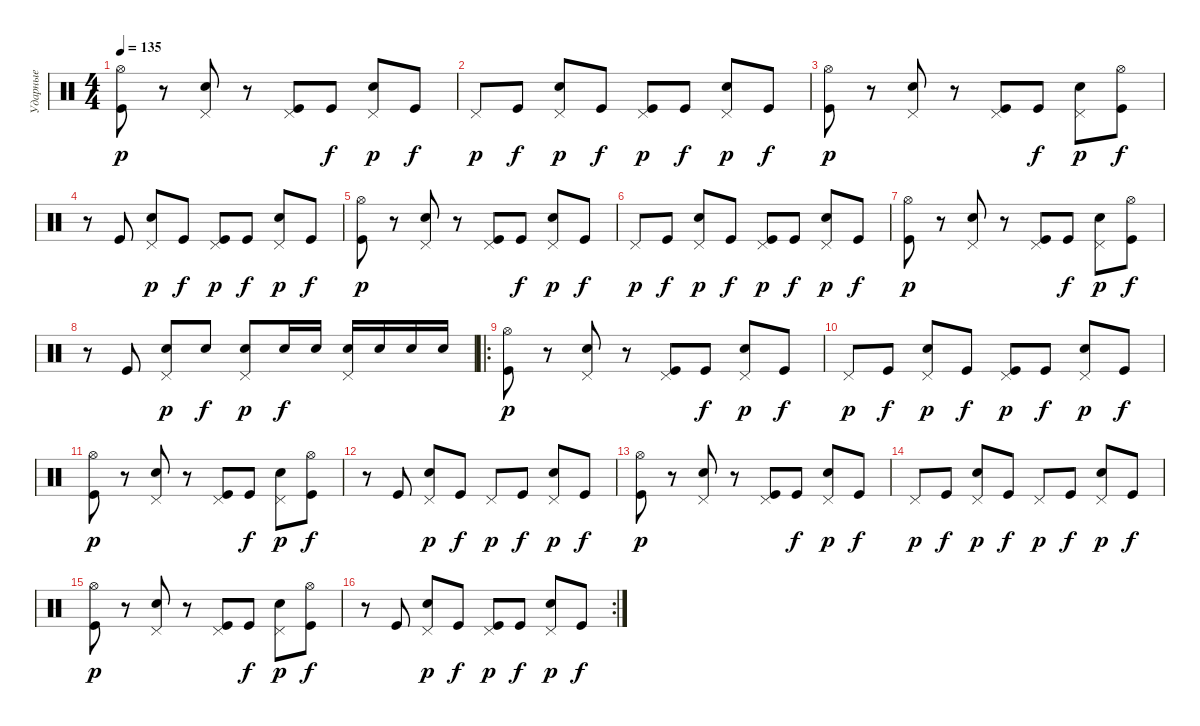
\track ("Ударные" "Ударные") {instrument percussion}
\staff {score}
\articulation defaults
\ts (4 4)
\tempo 135
\clef neutral
\ks c
("Kick (hit)" "Hi-Hat (open)").8{dy p} r.8 ("Snare (hit) 2" "Pedal Hi-Hat (hit)").8 r.8 ("Kick (hit)" "Pedal Hi-Hat (hit)").8 "Kick (hit)".8{dy f} ("Snare (hit) 2" "Pedal Hi-Hat (hit)").8{dy p} "Kick (hit)".8{dy f} |
"Pedal Hi-Hat (hit)".8{dy p} "Kick (hit)".8{dy f} ("Snare (hit) 2" "Pedal Hi-Hat (hit)").8{dy p} "Kick (hit)".8{dy f} ("Kick (hit)" "Pedal Hi-Hat (hit)").8{dy p} "Kick (hit)".8{dy f} ("Snare (hit) 2" "Pedal Hi-Hat (hit)").8{dy p} "Kick (hit)".8{dy f} |
("Kick (hit)" "Hi-Hat (open)").8{dy p} r.8 ("Snare (hit) 2" "Pedal Hi-Hat (hit)").8 r.8 ("Kick (hit)" "Pedal Hi-Hat (hit)").8 "Kick (hit)".8{dy f} ("Snare (hit) 2" "Pedal Hi-Hat (hit)").8{dy p} ("Kick (hit)" "Hi-Hat (open)").8{dy f} |
r.8 "Kick (hit)".8 ("Snare (hit) 2" "Pedal Hi-Hat (hit)").8{dy p} "Kick (hit)".8{dy f} ("Kick (hit)" "Pedal Hi-Hat (hit)").8{dy p} "Kick (hit)".8{dy f} ("Snare (hit) 2" "Pedal Hi-Hat (hit)").8{dy p} "Kick (hit)".8{dy f} |
("Kick (hit)" "Hi-Hat (open)").8{dy p} r.8 ("Snare (hit) 2" "Pedal Hi-Hat (hit)").8 r.8 ("Kick (hit)" "Pedal Hi-Hat (hit)").8 "Kick (hit)".8{dy f} ("Snare (hit) 2" "Pedal Hi-Hat (hit)").8{dy p} "Kick (hit)".8{dy f} |
"Pedal Hi-Hat (hit)".8{dy p} "Kick (hit)".8{dy f} ("Snare (hit) 2" "Pedal Hi-Hat (hit)").8{dy p} "Kick (hit)".8{dy f} ("Kick (hit)" "Pedal Hi-Hat (hit)").8{dy p} "Kick (hit)".8{dy f} ("Snare (hit) 2" "Pedal Hi-Hat (hit)").8{dy p} "Kick (hit)".8{dy f} |
("Kick (hit)" "Hi-Hat (open)").8{dy p} r.8 ("Snare (hit) 2" "Pedal Hi-Hat (hit)").8 r.8 ("Kick (hit)" "Pedal Hi-Hat (hit)").8 "Kick (hit)".8{dy f} ("Snare (hit) 2" "Pedal Hi-Hat (hit)").8{dy p} ("Kick (hit)" "Hi-Hat (open)").8{dy f} |
r.8 "Kick (hit)".8 ("Snare (hit) 2" "Pedal Hi-Hat (hit)").8{dy p} "Snare (hit) 2".8{dy f} ("Snare (hit) 2" "Pedal Hi-Hat (hit)").8{dy p} "Snare (hit) 2".16{dy f} "Snare (hit) 2".16 ("Snare (hit) 2" "Pedal Hi-Hat (hit)").16 "Snare (hit) 2".16 "Snare (hit) 2".16 "Snare (hit) 2".16 |
\ro
("Kick (hit)" "Hi-Hat (open)").8{dy p} r.8 ("Snare (hit) 2" "Pedal Hi-Hat (hit)").8 r.8 ("Kick (hit)" "Pedal Hi-Hat (hit)").8 "Kick (hit)".8{dy f} ("Snare (hit) 2" "Pedal Hi-Hat (hit)").8{dy p} "Kick (hit)".8{dy f} |
"Pedal Hi-Hat (hit)".8{dy p} "Kick (hit)".8{dy f} ("Snare (hit) 2" "Pedal Hi-Hat (hit)").8{dy p} "Kick (hit)".8{dy f} ("Kick (hit)" "Pedal Hi-Hat (hit)").8{dy p} "Kick (hit)".8{dy f} ("Snare (hit) 2" "Pedal Hi-Hat (hit)").8{dy p} "Kick (hit)".8{dy f} |
("Kick (hit)" "Hi-Hat (open)").8{dy p} r.8 ("Snare (hit) 2" "Pedal Hi-Hat (hit)").8 r.8 ("Kick (hit)" "Pedal Hi-Hat (hit)").8 "Kick (hit)".8{dy f} ("Snare (hit) 2" "Pedal Hi-Hat (hit)").8{dy p} ("Kick (hit)" "Hi-Hat (open)").8{dy f} |
r.8 "Kick (hit)".8 ("Snare (hit) 2" "Pedal Hi-Hat (hit)").8{dy p} "Kick (hit)".8{dy f} "Pedal Hi-Hat (hit)".8{dy p} "Kick (hit)".8{dy f} ("Snare (hit) 2" "Pedal Hi-Hat (hit)").8{dy p} "Kick (hit)".8{dy f} |
("Kick (hit)" "Hi-Hat (open)").8{dy p} r.8 ("Snare (hit) 2" "Pedal Hi-Hat (hit)").8 r.8 ("Kick (hit)" "Pedal Hi-Hat (hit)").8 "Kick (hit)".8{dy f} ("Snare (hit) 2" "Pedal Hi-Hat (hit)").8{dy p} "Kick (hit)".8{dy f} |
"Pedal Hi-Hat (hit)".8{dy p} "Kick (hit)".8{dy f} ("Snare (hit) 2" "Pedal Hi-Hat (hit)").8{dy p} "Kick (hit)".8{dy f} "Pedal Hi-Hat (hit)".8{dy p} "Kick (hit)".8{dy f} ("Snare (hit) 2" "Pedal Hi-Hat (hit)").8{dy p} "Kick (hit)".8{dy f} |
("Kick (hit)" "Hi-Hat (open)").8{dy p} r.8 ("Snare (hit) 2" "Pedal Hi-Hat (hit)").8 r.8 ("Kick (hit)" "Pedal Hi-Hat (hit)").8 "Kick (hit)".8{dy f} ("Snare (hit) 2" "Pedal Hi-Hat (hit)").8{dy p} ("Kick (hit)" "Hi-Hat (open)").8{dy f} |
\rc 2
r.8 "Kick (hit)".8 ("Snare (hit) 2" "Pedal Hi-Hat (hit)").8{dy p} "Kick (hit)".8{dy f} ("Kick (hit)" "Pedal Hi-Hat (hit)").8{dy p} "Kick (hit)".8{dy f} ("Snare (hit) 2" "Pedal Hi-Hat (hit)").8{dy p} "Kick (hit)".8{dy f}
